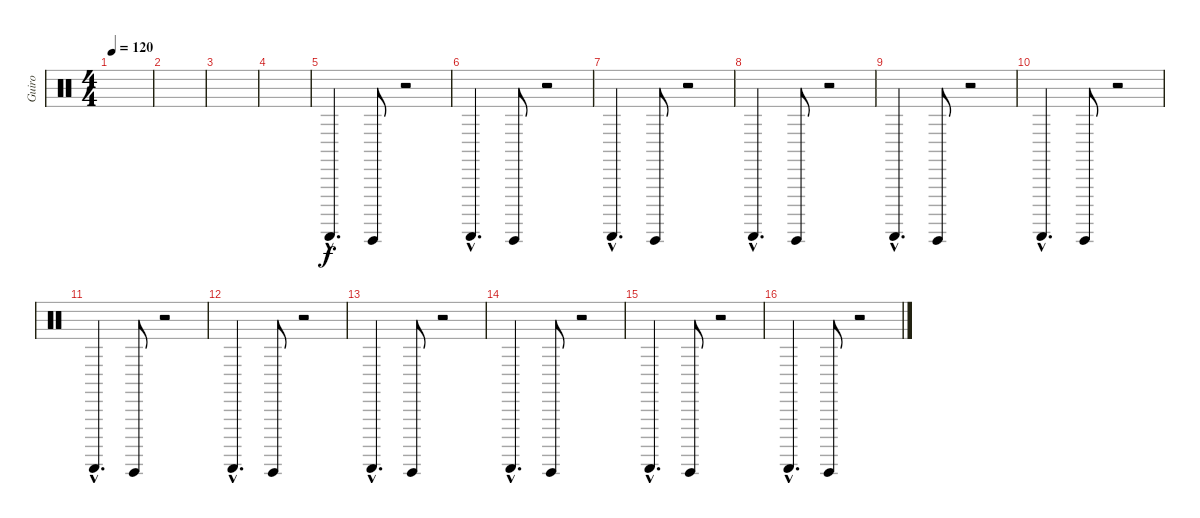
\track ("Guiro" "Guiro") {instrument percussion}
\staff {score}
\articulation defaults
\ts (4 4)
\tempo 120
\clef neutral
\ks c
|
|
|
|
"Guiro (scrap-return)"{hac}.4{d} "Guiro (hit)".8 r.2 |
"Guiro (scrap-return)"{hac}.4{d} "Guiro (hit)".8 r.2 |
"Guiro (scrap-return)"{hac}.4{d} "Guiro (hit)".8 r.2 |
"Guiro (scrap-return)"{hac}.4{d} "Guiro (hit)".8 r.2 |
"Guiro (scrap-return)"{hac}.4{d} "Guiro (hit)".8 r.2 |
"Guiro (scrap-return)"{hac}.4{d} "Guiro (hit)".8 r.2 |
"Guiro (scrap-return)"{hac}.4{d} "Guiro (hit)".8 r.2 |
"Guiro (scrap-return)"{hac}.4{d} "Guiro (hit)".8 r.2 |
"Guiro (scrap-return)"{hac}.4{d} "Guiro (hit)".8 r.2 |
"Guiro (scrap-return)"{hac}.4{d} "Guiro (hit)".8 r.2 |
"Guiro (scrap-return)"{hac}.4{d} "Guiro (hit)".8 r.2 |
"Guiro (scrap-return)"{hac}.4{d} "Guiro (hit)".8 r.2
